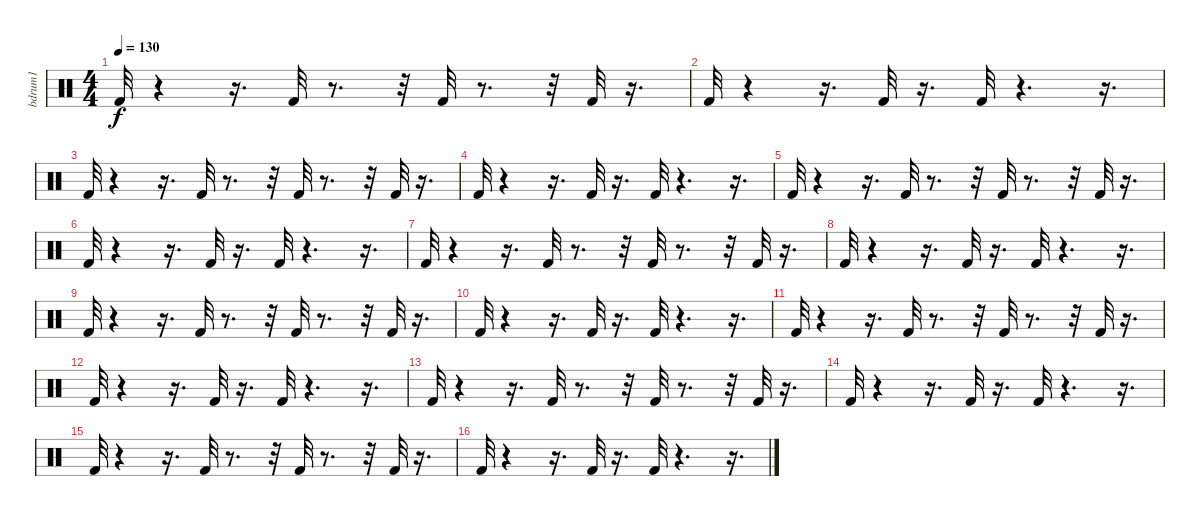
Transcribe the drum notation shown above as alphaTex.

\track ("bdrum1              " "bdrum1    ") {instrument percussion}
\staff {score}
\articulation defaults
\ts (4 4)
\tempo 130
\clef neutral
\ks c "Kick (hit) 2".32{dy f}
r.4 r.16{d} "Kick (hit) 2".32 r.8{d} r.32 "Kick (hit) 2".32 r.8{d} r.32 "Kick (hit) 2".32 r.16{d} |
"Kick (hit) 2".32 r.4 r.16{d} "Kick (hit) 2".32 r.16{d} "Kick (hit) 2".32 r.4{d} r.16{d} |
"Kick (hit) 2".32 r.4 r.16{d} "Kick (hit) 2".32 r.8{d} r.32 "Kick (hit) 2".32 r.8{d} r.32 "Kick (hit) 2".32 r.16{d} |
"Kick (hit) 2".32 r.4 r.16{d} "Kick (hit) 2".32 r.16{d} "Kick (hit) 2".32 r.4{d} r.16{d} |
"Kick (hit) 2".32 r.4 r.16{d} "Kick (hit) 2".32 r.8{d} r.32 "Kick (hit) 2".32 r.8{d} r.32 "Kick (hit) 2".32 r.16{d} |
"Kick (hit) 2".32 r.4 r.16{d} "Kick (hit) 2".32 r.16{d} "Kick (hit) 2".32 r.4{d} r.16{d} |
"Kick (hit) 2".32 r.4 r.16{d} "Kick (hit) 2".32 r.8{d} r.32 "Kick (hit) 2".32 r.8{d} r.32 "Kick (hit) 2".32 r.16{d} |
"Kick (hit) 2".32 r.4 r.16{d} "Kick (hit) 2".32 r.16{d} "Kick (hit) 2".32 r.4{d} r.16{d} |
"Kick (hit) 2".32 r.4 r.16{d} "Kick (hit) 2".32 r.8{d} r.32 "Kick (hit) 2".32 r.8{d} r.32 "Kick (hit) 2".32 r.16{d} |
"Kick (hit) 2".32 r.4 r.16{d} "Kick (hit) 2".32 r.16{d} "Kick (hit) 2".32 r.4{d} r.16{d} |
"Kick (hit) 2".32 r.4 r.16{d} "Kick (hit) 2".32 r.8{d} r.32 "Kick (hit) 2".32 r.8{d} r.32 "Kick (hit) 2".32 r.16{d} |
"Kick (hit) 2".32 r.4 r.16{d} "Kick (hit) 2".32 r.16{d} "Kick (hit) 2".32 r.4{d} r.16{d} |
"Kick (hit) 2".32 r.4 r.16{d} "Kick (hit) 2".32 r.8{d} r.32 "Kick (hit) 2".32 r.8{d} r.32 "Kick (hit) 2".32 r.16{d} |
"Kick (hit) 2".32 r.4 r.16{d} "Kick (hit) 2".32 r.16{d} "Kick (hit) 2".32 r.4{d} r.16{d} |
"Kick (hit) 2".32 r.4 r.16{d} "Kick (hit) 2".32 r.8{d} r.32 "Kick (hit) 2".32 r.8{d} r.32 "Kick (hit) 2".32 r.16{d} |
"Kick (hit) 2".32 r.4 r.16{d} "Kick (hit) 2".32 r.16{d} "Kick (hit) 2".32 r.4{d} r.16{d}
